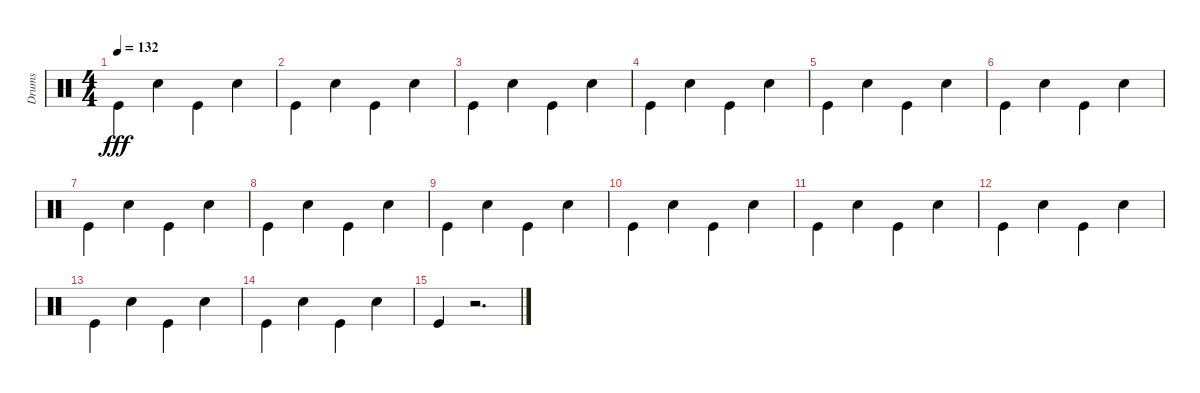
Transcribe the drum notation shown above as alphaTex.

\track ("Drums" "Drums") {instrument percussion}
\staff {score}
\articulation defaults
\ts (4 4)
\tempo 132
\clef neutral
\ks c "Kick (hit)".4{dy fff beam Down} "Snare (hit) 2".4 "Kick (hit)".4{beam Down} "Snare (hit) 2".4
|
"Kick (hit)".4{beam Down} "Snare (hit) 2".4 "Kick (hit)".4{beam Down} "Snare (hit) 2".4 |
"Kick (hit)".4{beam Down} "Snare (hit) 2".4 "Kick (hit)".4{beam Down} "Snare (hit) 2".4 |
"Kick (hit)".4{beam Down} "Snare (hit) 2".4 "Kick (hit)".4{beam Down} "Snare (hit) 2".4 |
"Kick (hit)".4{beam Down} "Snare (hit) 2".4 "Kick (hit)".4{beam Down} "Snare (hit) 2".4 |
"Kick (hit)".4{beam Down} "Snare (hit) 2".4 "Kick (hit)".4{beam Down} "Snare (hit) 2".4 |
"Kick (hit)".4{beam Down} "Snare (hit) 2".4 "Kick (hit)".4{beam Down} "Snare (hit) 2".4 |
"Kick (hit)".4{beam Down} "Snare (hit) 2".4 "Kick (hit)".4{beam Down} "Snare (hit) 2".4 |
"Kick (hit)".4{beam Down} "Snare (hit) 2".4 "Kick (hit)".4{beam Down} "Snare (hit) 2".4 |
"Kick (hit)".4{beam Down} "Snare (hit) 2".4 "Kick (hit)".4{beam Down} "Snare (hit) 2".4 |
"Kick (hit)".4{beam Down} "Snare (hit) 2".4 "Kick (hit)".4{beam Down} "Snare (hit) 2".4 |
"Kick (hit)".4{beam Down} "Snare (hit) 2".4 "Kick (hit)".4{beam Down} "Snare (hit) 2".4 |
"Kick (hit)".4{beam Down} "Snare (hit) 2".4 "Kick (hit)".4{beam Down} "Snare (hit) 2".4 |
"Kick (hit)".4{beam Down} "Snare (hit) 2".4 "Kick (hit)".4{beam Down} "Snare (hit) 2".4 |
"Kick (hit)".4 r.2{d}
